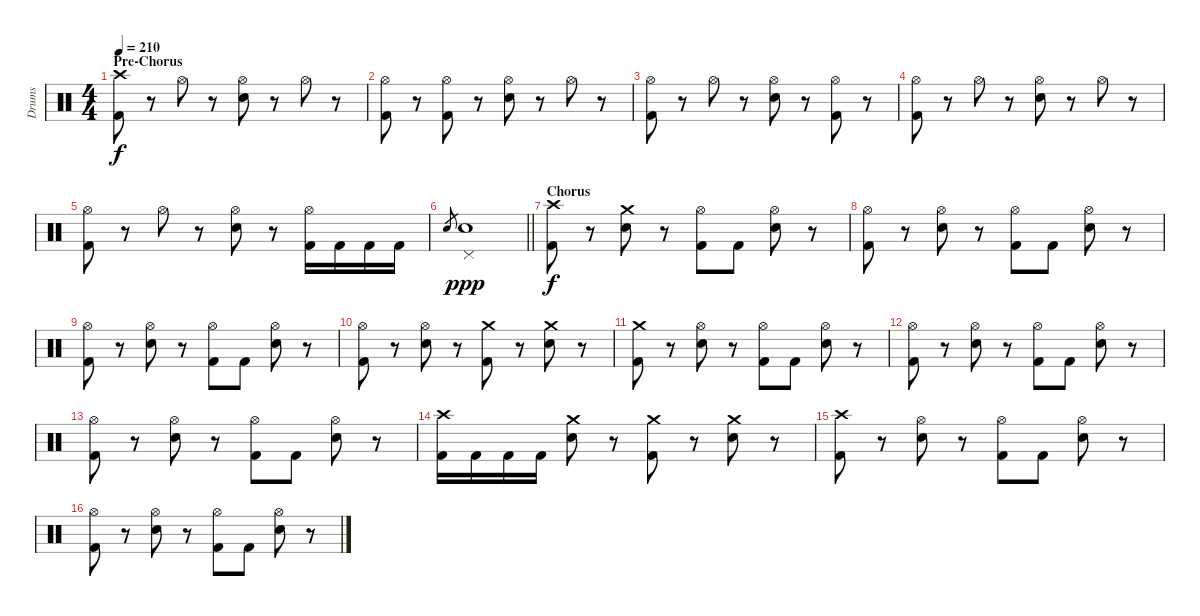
\track ("Drums" "Drums") {instrument percussion}
\staff {score}
\articulation defaults
\ts (4 4)
\section ("" "Pre-Chorus")
\tempo 210
\clef neutral
\ks c
("Crash high (hit)" "Kick (hit) 2").8{dy f} r.8 "Hi-Hat (open)".8 r.8 ("Hi-Hat (open)" "Electric Snare (hit)").8 r.8 "Hi-Hat (open)".8 r.8 |
("Hi-Hat (open)" "Kick (hit) 2").8 r.8 ("Hi-Hat (open)" "Kick (hit) 2").8 r.8 ("Hi-Hat (open)" "Electric Snare (hit)").8 r.8 "Hi-Hat (open)".8 r.8 |
("Hi-Hat (open)" "Kick (hit) 2").8 r.8 "Hi-Hat (open)".8 r.8 ("Hi-Hat (open)" "Electric Snare (hit)").8 r.8 ("Hi-Hat (open)" "Kick (hit) 2").8 r.8 |
("Hi-Hat (open)" "Kick (hit) 2").8 r.8 "Hi-Hat (open)".8 r.8 ("Hi-Hat (open)" "Electric Snare (hit)").8 r.8 "Hi-Hat (open)".8 r.8 |
("Hi-Hat (open)" "Kick (hit) 2").8 r.8 "Hi-Hat (open)".8 r.8 ("Hi-Hat (open)" "Electric Snare (hit)").8 r.8 ("Hi-Hat (open)" "Kick (hit) 2").16 "Kick (hit) 2".16 "Kick (hit) 2".16 "Kick (hit) 2".16 |
\barLineRight lightlight "Electric Snare (hit)".8{gr}
("Pedal Hi-Hat (hit)" "Electric Snare (hit)").1{dy ppp} |
\section ("" "Chorus")
("Crash high (hit)" "Kick (hit) 2").8{dy f} r.8 ("Crash medium (hit)" "Electric Snare (hit)").8 r.8 ("Hi-Hat (open)" "Kick (hit) 2").8 "Kick (hit) 2".8 ("Hi-Hat (open)" "Electric Snare (hit)").8 r.8 |
("Hi-Hat (open)" "Kick (hit) 2").8 r.8 ("Hi-Hat (open)" "Electric Snare (hit)").8 r.8 ("Hi-Hat (open)" "Kick (hit) 2").8 "Kick (hit) 2".8 ("Hi-Hat (open)" "Electric Snare (hit)").8 r.8 |
("Hi-Hat (open)" "Kick (hit) 2").8 r.8 ("Hi-Hat (open)" "Electric Snare (hit)").8 r.8 ("Hi-Hat (open)" "Kick (hit) 2").8 "Kick (hit) 2".8 ("Hi-Hat (open)" "Electric Snare (hit)").8 r.8 |
("Hi-Hat (open)" "Kick (hit) 2").8 r.8 ("Hi-Hat (open)" "Electric Snare (hit)").8 r.8 ("Crash medium (hit)" "Kick (hit) 2").8 r.8 ("Crash medium (hit)" "Electric Snare (hit)").8 r.8 |
("Crash medium (hit)" "Kick (hit) 2").8 r.8 ("Hi-Hat (open)" "Electric Snare (hit)").8 r.8 ("Hi-Hat (open)" "Kick (hit) 2").8 "Kick (hit) 2".8 ("Hi-Hat (open)" "Electric Snare (hit)").8 r.8 |
("Hi-Hat (open)" "Kick (hit) 2").8 r.8 ("Hi-Hat (open)" "Electric Snare (hit)").8 r.8 ("Hi-Hat (open)" "Kick (hit) 2").8 "Kick (hit) 2".8 ("Hi-Hat (open)" "Electric Snare (hit)").8 r.8 |
("Hi-Hat (open)" "Kick (hit) 2").8 r.8 ("Hi-Hat (open)" "Electric Snare (hit)").8 r.8 ("Hi-Hat (open)" "Kick (hit) 2").8 "Kick (hit) 2".8 ("Hi-Hat (open)" "Electric Snare (hit)").8 r.8 |
("Crash high (hit)" "Kick (hit) 2").16 "Kick (hit) 2".16 "Kick (hit) 2".16 "Kick (hit) 2".16 ("Crash medium (hit)" "Electric Snare (hit)").8 r.8 ("Crash medium (hit)" "Kick (hit) 2").8 r.8 ("Crash medium (hit)" "Electric Snare (hit)").8 r.8 |
("Crash high (hit)" "Kick (hit) 2").8 r.8 ("Hi-Hat (open)" "Electric Snare (hit)").8 r.8 ("Hi-Hat (open)" "Kick (hit) 2").8 "Kick (hit) 2".8 ("Hi-Hat (open)" "Electric Snare (hit)").8 r.8 |
("Hi-Hat (open)" "Kick (hit) 2").8 r.8 ("Hi-Hat (open)" "Electric Snare (hit)").8 r.8 ("Hi-Hat (open)" "Kick (hit) 2").8 "Kick (hit) 2".8 ("Hi-Hat (open)" "Electric Snare (hit)").8 r.8
